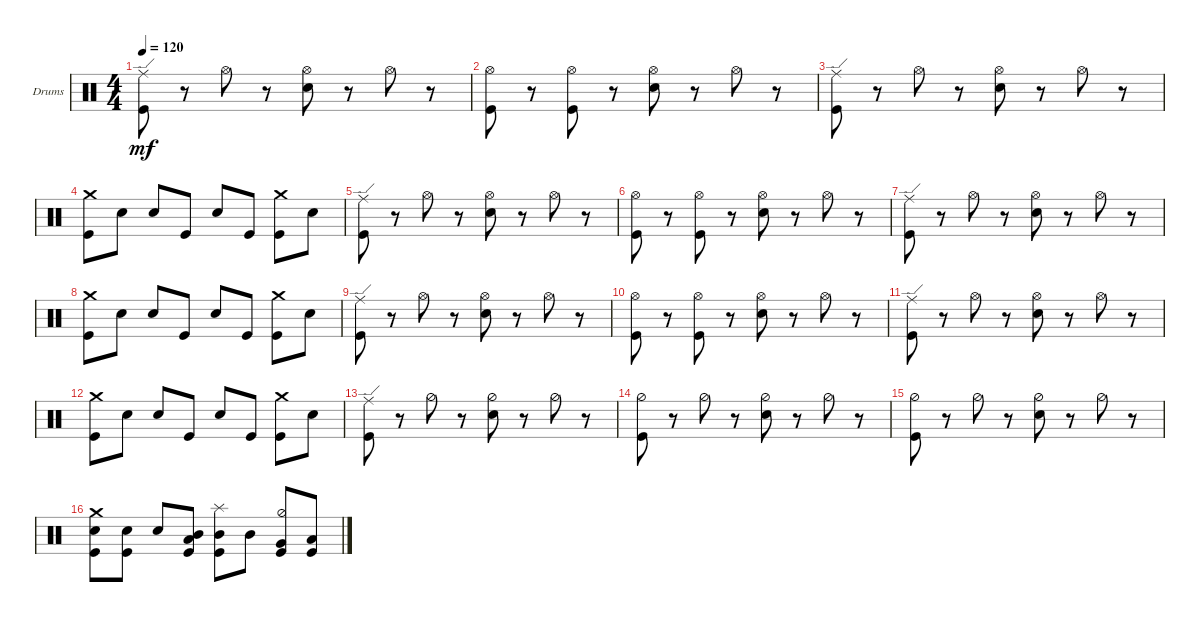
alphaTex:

\bracketExtendMode groupsimilarinstruments
\firstSystemTrackNameOrientation horizontal
\otherSystemsTrackNameOrientation horizontal
\track ("Drumkit" "Drums") {instrument percussion}
\staff {score}
\articulation defaults
\ts (4 4)
\tempo 120
\clef neutral
\ks c
("Kick (hit)" "Ride (edge)").8{dy mf} r.8 "Hi-Hat (open)".8 r.8 ("Snare (hit) 2" "Hi-Hat (open)").8 r.8 "Hi-Hat (open)".8 r.8 |
("Kick (hit)" "Hi-Hat (open)").8 r.8 ("Kick (hit)" "Hi-Hat (open)").8 r.8 ("Snare (hit) 2" "Hi-Hat (open)").8 r.8 "Hi-Hat (open)".8 r.8 |
("Kick (hit)" "Ride (edge)").8 r.8 "Hi-Hat (open)".8 r.8 ("Snare (hit) 2" "Hi-Hat (open)").8 r.8 "Hi-Hat (open)".8 r.8 |
("Kick (hit)" "Crash medium (hit)").8 "Snare (hit) 2".8 "Snare (hit) 2".8 "Kick (hit)".8 "Snare (hit) 2".8 "Kick (hit)".8 ("Kick (hit)" "Crash medium (hit)").8 "Snare (hit) 2".8 |
("Kick (hit)" "Ride (edge)").8 r.8 "Hi-Hat (open)".8 r.8 ("Snare (hit) 2" "Hi-Hat (open)").8 r.8 "Hi-Hat (open)".8 r.8 |
("Kick (hit)" "Hi-Hat (open)").8 r.8 ("Kick (hit)" "Hi-Hat (open)").8 r.8 ("Snare (hit) 2" "Hi-Hat (open)").8 r.8 "Hi-Hat (open)".8 r.8 |
("Kick (hit)" "Ride (edge)").8 r.8 "Hi-Hat (open)".8 r.8 ("Snare (hit) 2" "Hi-Hat (open)").8 r.8 "Hi-Hat (open)".8 r.8 |
("Kick (hit)" "Crash medium (hit)").8 "Snare (hit) 2".8 "Snare (hit) 2".8 "Kick (hit)".8 "Snare (hit) 2".8 "Kick (hit)".8 ("Kick (hit)" "Crash medium (hit)").8 "Snare (hit) 2".8 |
("Kick (hit)" "Ride (edge)").8 r.8 "Hi-Hat (open)".8 r.8 ("Snare (hit) 2" "Hi-Hat (open)").8 r.8 "Hi-Hat (open)".8 r.8 |
("Kick (hit)" "Hi-Hat (open)").8 r.8 ("Kick (hit)" "Hi-Hat (open)").8 r.8 ("Snare (hit) 2" "Hi-Hat (open)").8 r.8 "Hi-Hat (open)".8 r.8 |
("Kick (hit)" "Ride (edge)").8 r.8 "Hi-Hat (open)".8 r.8 ("Snare (hit) 2" "Hi-Hat (open)").8 r.8 "Hi-Hat (open)".8 r.8 |
("Kick (hit)" "Crash medium (hit)").8 "Snare (hit) 2".8 "Snare (hit) 2".8 "Kick (hit)".8 "Snare (hit) 2".8 "Kick (hit)".8 ("Kick (hit)" "Crash medium (hit)").8 "Snare (hit) 2".8 |
("Kick (hit)" "Ride (edge)").8 r.8 "Hi-Hat (half)".8 r.8 ("Snare (hit) 2" "Hi-Hat (half)").8 r.8 "Hi-Hat (half)".8 r.8 |
("Kick (hit)" "Hi-Hat (half)").8 r.8 "Hi-Hat (half)".8 r.8 ("Snare (hit) 2" "Hi-Hat (half)").8 r.8 "Hi-Hat (half)".8 r.8 |
("Kick (hit)" "Hi-Hat (half)").8 r.8 "Hi-Hat (half)".8 r.8 ("Snare (hit) 2" "Hi-Hat (half)").8 r.8 "Hi-Hat (half)".8 r.8 |
("Kick (hit)" "Snare (hit) 2" "Crash medium (hit)").8 ("Snare (hit) 2" "Kick (hit)").8 "Snare (hit) 2".8 ("Kick (hit)" "Low Tom (hit)" "Mid Tom (hit)").8 ("Kick (hit)" "Mid Tom (hit)" "Splash (hit)").8 "Mid Tom (hit)".8 ("Kick (hit)" "Hi-Hat (half)" "Very Low Tom (hit)").8 ("Kick (hit)" "Low Tom (hit)").8
